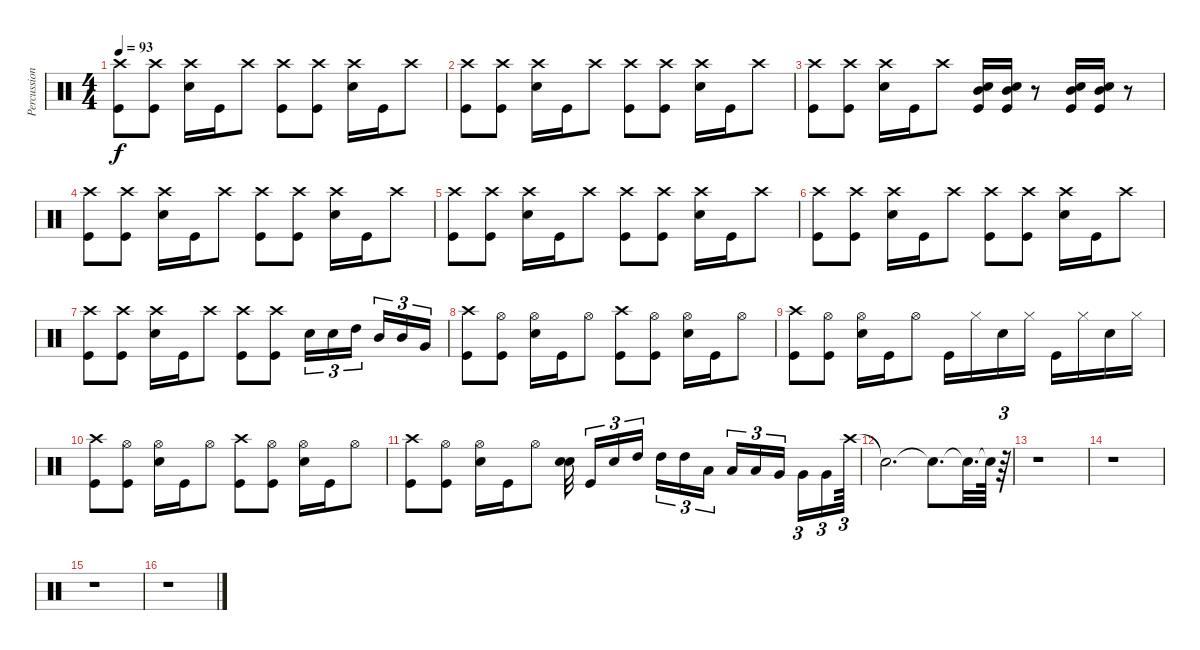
\track ("Percussion" "Percussion") {instrument percussion}
\staff {score}
\articulation defaults
\ts (4 4)
\tempo 93
\clef neutral
\ks c
("Crash high (hit)" "Kick (hit)").8{dy f} ("Crash high (hit)" "Kick (hit)").8 ("Crash high (hit)" "Snare (hit) 2").16 "Kick (hit)".16 "Crash high (hit)".8 ("Crash high (hit)" "Kick (hit)").8 ("Crash high (hit)" "Kick (hit)").8 ("Crash high (hit)" "Snare (hit) 2").16 "Kick (hit)".16 "Crash high (hit)".8 |
("Crash high (hit)" "Kick (hit)").8 ("Crash high (hit)" "Kick (hit)").8 ("Crash high (hit)" "Snare (hit) 2").16 "Kick (hit)".16 "Crash high (hit)".8 ("Crash high (hit)" "Kick (hit)").8 ("Crash high (hit)" "Kick (hit)").8 ("Crash high (hit)" "Snare (hit) 2").16 "Kick (hit)".16 "Crash high (hit)".8 |
("Crash high (hit)" "Kick (hit)").8 ("Crash high (hit)" "Kick (hit)").8 ("Crash high (hit)" "Snare (hit) 2").16 "Kick (hit)".16 "Crash high (hit)".8 ("Snare (hit) 2" "Mid Tom (hit)" "Kick (hit)").16 ("Snare (hit) 2" "Mid Tom (hit)" "Kick (hit)").16 r.8 ("Snare (hit) 2" "Mid Tom (hit)" "Kick (hit)").16 ("Snare (hit) 2" "Mid Tom (hit)" "Kick (hit)").16 r.8 |
("Crash high (hit)" "Kick (hit)").8 ("Crash high (hit)" "Kick (hit)").8 ("Crash high (hit)" "Snare (hit) 2").16 "Kick (hit)".16 "Crash high (hit)".8 ("Crash high (hit)" "Kick (hit)").8 ("Crash high (hit)" "Kick (hit)").8 ("Crash high (hit)" "Snare (hit) 2").16 "Kick (hit)".16 "Crash high (hit)".8 |
("Crash high (hit)" "Kick (hit)").8 ("Crash high (hit)" "Kick (hit)").8 ("Crash high (hit)" "Snare (hit) 2").16 "Kick (hit)".16 "Crash high (hit)".8 ("Crash high (hit)" "Kick (hit)").8 ("Crash high (hit)" "Kick (hit)").8 ("Crash high (hit)" "Snare (hit) 2").16 "Kick (hit)".16 "Crash high (hit)".8 |
("Crash high (hit)" "Kick (hit)").8 ("Crash high (hit)" "Kick (hit)").8 ("Crash high (hit)" "Snare (hit) 2").16 "Kick (hit)".16 "Crash high (hit)".8 ("Crash high (hit)" "Kick (hit)").8 ("Crash high (hit)" "Kick (hit)").8 ("Crash high (hit)" "Snare (hit) 2").16 "Kick (hit)".16 "Crash high (hit)".8 |
("Crash high (hit)" "Kick (hit)").8 ("Crash high (hit)" "Kick (hit)").8 ("Crash high (hit)" "Snare (hit) 2").16 "Kick (hit)".16 "Crash high (hit)".8 ("Crash high (hit)" "Kick (hit)").8 ("Crash high (hit)" "Kick (hit)").8 "Snare (hit) 2".16{tu (3 2)} "Snare (hit) 2".16{tu (3 2)} "High Tom (hit)".16{tu (3 2) beam splitsecondary} "Mid Tom (hit)".16{tu (3 2)} "Mid Tom (hit)".16{tu (3 2)} "Very Low Tom (hit)".16{tu (3 2)} |
("Crash high (hit)" "Kick (hit)").8 ("Hi-Hat (open)" "Kick (hit)").8 ("Hi-Hat (open)" "Snare (hit) 2").16 "Kick (hit)".16 "Hi-Hat (open)".8 ("Crash high (hit)" "Kick (hit)").8 ("Hi-Hat (open)" "Kick (hit)").8 ("Hi-Hat (open)" "Snare (hit) 2").16 "Kick (hit)".16 "Hi-Hat (open)".8 |
("Crash high (hit)" "Kick (hit)").8 ("Hi-Hat (open)" "Kick (hit)").8 ("Hi-Hat (open)" "Snare (hit) 2").16 "Kick (hit)".16 "Hi-Hat (open)".8 "Kick (hit)".16 "Hi-Hat (closed)".16 "Snare (hit) 2".16 "Hi-Hat (closed)".16 "Kick (hit)".16 "Hi-Hat (closed)".16 "Snare (hit) 2".16 "Hi-Hat (closed)".16 |
("Crash high (hit)" "Kick (hit)").8 ("Hi-Hat (open)" "Kick (hit)").8 ("Hi-Hat (open)" "Snare (hit) 2").16 "Kick (hit)".16 "Hi-Hat (open)".8 ("Crash high (hit)" "Kick (hit)").8 ("Hi-Hat (open)" "Kick (hit)").8 ("Hi-Hat (open)" "Snare (hit) 2").16 "Kick (hit)".16 "Hi-Hat (open)".8 |
("Crash high (hit)" "Kick (hit)").8 ("Hi-Hat (open)" "Kick (hit)").8 ("Hi-Hat (open)" "Snare (hit) 2").16 "Kick (hit)".16 "Hi-Hat (open)".8 ("Snare (hit) 2" "Snare (hit) 2").32{beam splitsecondary} "Kick (hit)".16{tu (3 2)} "Snare (hit) 2".16{tu (3 2)} "High Tom (hit)".16{tu (3 2) beam splitsecondary} "High Tom (hit)".16{tu (3 2)} "High Tom (hit)".16{tu (3 2)} "Low Tom (hit)".16{tu (3 2)} "Low Tom (hit)".16{tu (3 2)} "Low Tom (hit)".16{tu (3 2)} "Very Low Tom (hit)".16{tu (3 2) beam splitsecondary} "Very Low Tom (hit)".16{tu (3 2)} "Very Low Tom (hit)".16{tu (3 2)} "Crash high (hit)".64{tu (3 2)} |
"Snare (hit)"{t}.2{d} "Snare (hit)"{t}.8{d} "Snare (hit)"{t}.32{d} "Snare (hit)"{t}.64 r.64{tu (3 2)} |
r.1 |
r.1 |
r.1 |
r.1
